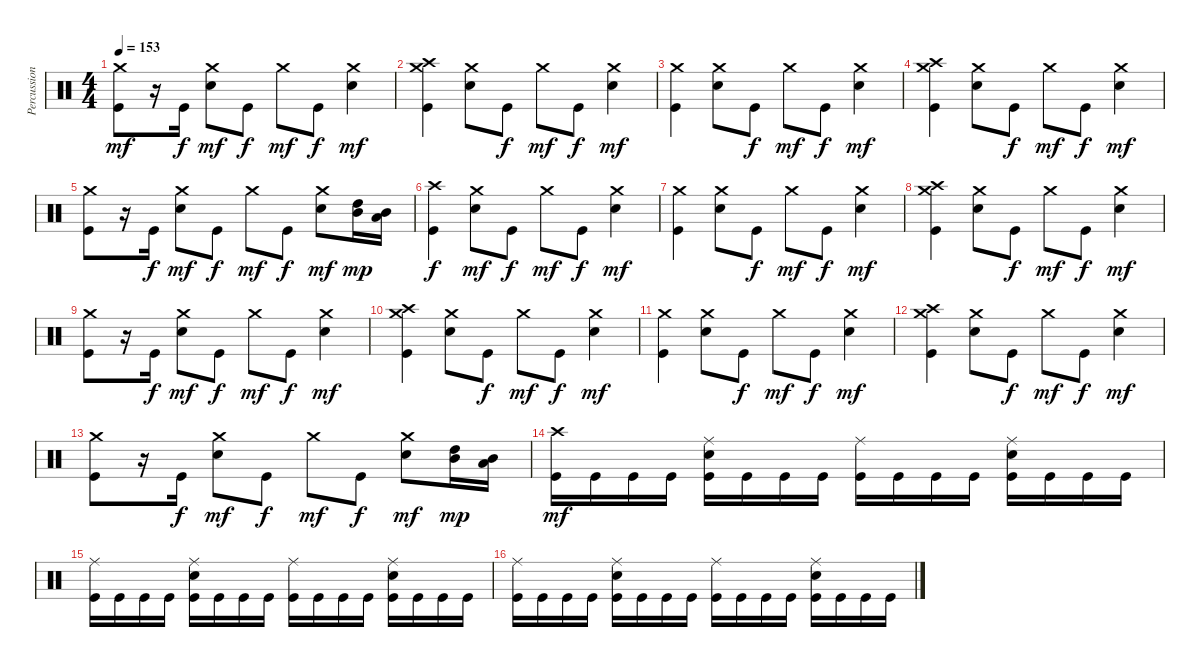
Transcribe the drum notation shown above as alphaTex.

\track ("Percussions" "Percussion") {instrument percussion}
\staff {score}
\articulation defaults
\ts (4 4)
\tempo 153
\clef neutral
\ks c
("Kick (hit)" "Crash medium (hit)").8{dy mf} r.16 "Kick (hit)".16{dy f} ("Electric Snare (hit)" "Crash medium (hit)").8{dy mf} "Kick (hit)".8{dy f} "Crash medium (hit)".8{dy mf} "Kick (hit)".8{dy f} ("Electric Snare (hit)" "Crash medium (hit)").4{dy mf} |
("Kick (hit)" "Crash medium (hit)" "Crash high (hit)").4 ("Electric Snare (hit)" "Crash medium (hit)").8 "Kick (hit)".8{dy f} "Crash medium (hit)".8{dy mf} "Kick (hit)".8{dy f} ("Electric Snare (hit)" "Crash medium (hit)").4{dy mf} |
("Kick (hit)" "Crash medium (hit)").4 ("Electric Snare (hit)" "Crash medium (hit)").8 "Kick (hit)".8{dy f} "Crash medium (hit)".8{dy mf} "Kick (hit)".8{dy f} ("Electric Snare (hit)" "Crash medium (hit)").4{dy mf} |
("Kick (hit)" "Crash medium (hit)" "Crash high (hit)").4 ("Electric Snare (hit)" "Crash medium (hit)").8 "Kick (hit)".8{dy f} "Crash medium (hit)".8{dy mf} "Kick (hit)".8{dy f} ("Electric Snare (hit)" "Crash medium (hit)").4{dy mf} |
("Kick (hit)" "Crash medium (hit)").8 r.16 "Kick (hit)".16{dy f} ("Electric Snare (hit)" "Crash medium (hit)").8{dy mf} "Kick (hit)".8{dy f} "Crash medium (hit)".8{dy mf} "Kick (hit)".8{dy f} ("Electric Snare (hit)" "Crash medium (hit)").8{dy mf} ("Mid Tom (hit)" "High Tom (hit)").16{dy mp} ("Low Tom (hit)" "Mid Tom (hit)").16 |
("Kick (hit)" "Crash high (hit)").4{dy f} ("Electric Snare (hit)" "Crash medium (hit)").8{dy mf} "Kick (hit)".8{dy f} "Crash medium (hit)".8{dy mf} "Kick (hit)".8{dy f} ("Electric Snare (hit)" "Crash medium (hit)").4{dy mf} |
("Kick (hit)" "Crash medium (hit)").4 ("Electric Snare (hit)" "Crash medium (hit)").8 "Kick (hit)".8{dy f} "Crash medium (hit)".8{dy mf} "Kick (hit)".8{dy f} ("Electric Snare (hit)" "Crash medium (hit)").4{dy mf} |
("Kick (hit)" "Crash medium (hit)" "Crash high (hit)").4 ("Electric Snare (hit)" "Crash medium (hit)").8 "Kick (hit)".8{dy f} "Crash medium (hit)".8{dy mf} "Kick (hit)".8{dy f} ("Electric Snare (hit)" "Crash medium (hit)").4{dy mf} |
("Kick (hit)" "Crash medium (hit)").8 r.16 "Kick (hit)".16{dy f} ("Electric Snare (hit)" "Crash medium (hit)").8{dy mf} "Kick (hit)".8{dy f} "Crash medium (hit)".8{dy mf} "Kick (hit)".8{dy f} ("Electric Snare (hit)" "Crash medium (hit)").4{dy mf} |
("Kick (hit)" "Crash medium (hit)" "Crash high (hit)").4 ("Electric Snare (hit)" "Crash medium (hit)").8 "Kick (hit)".8{dy f} "Crash medium (hit)".8{dy mf} "Kick (hit)".8{dy f} ("Electric Snare (hit)" "Crash medium (hit)").4{dy mf} |
("Kick (hit)" "Crash medium (hit)").4 ("Electric Snare (hit)" "Crash medium (hit)").8 "Kick (hit)".8{dy f} "Crash medium (hit)".8{dy mf} "Kick (hit)".8{dy f} ("Electric Snare (hit)" "Crash medium (hit)").4{dy mf} |
("Kick (hit)" "Crash medium (hit)" "Crash high (hit)").4 ("Electric Snare (hit)" "Crash medium (hit)").8 "Kick (hit)".8{dy f} "Crash medium (hit)".8{dy mf} "Kick (hit)".8{dy f} ("Electric Snare (hit)" "Crash medium (hit)").4{dy mf} |
("Kick (hit)" "Crash medium (hit)").8 r.16 "Kick (hit)".16{dy f} ("Electric Snare (hit)" "Crash medium (hit)").8{dy mf} "Kick (hit)".8{dy f} "Crash medium (hit)".8{dy mf} "Kick (hit)".8{dy f} ("Electric Snare (hit)" "Crash medium (hit)").8{dy mf} ("Mid Tom (hit)" "High Tom (hit)").16{dy mp} ("Low Tom (hit)" "Mid Tom (hit)").16 |
("Kick (hit)" "Crash high (hit)").16{dy mf} "Kick (hit)".16 "Kick (hit)".16 "Kick (hit)".16 ("Kick (hit)" "Electric Snare (hit)" "Ride (middle)").16 "Kick (hit)".16 "Kick (hit)".16 "Kick (hit)".16 ("Kick (hit)" "Ride (middle)").16 "Kick (hit)".16 "Kick (hit)".16 "Kick (hit)".16 ("Kick (hit)" "Electric Snare (hit)" "Ride (middle)").16 "Kick (hit)".16 "Kick (hit)".16 "Kick (hit)".16 |
("Kick (hit)" "Ride (middle)").16 "Kick (hit)".16 "Kick (hit)".16 "Kick (hit)".16 ("Kick (hit)" "Electric Snare (hit)" "Ride (middle)").16 "Kick (hit)".16 "Kick (hit)".16 "Kick (hit)".16 ("Kick (hit)" "Ride (middle)").16 "Kick (hit)".16 "Kick (hit)".16 "Kick (hit)".16 ("Kick (hit)" "Electric Snare (hit)" "Ride (middle)").16 "Kick (hit)".16 "Kick (hit)".16 "Kick (hit)".16 |
("Kick (hit)" "Ride (middle)").16 "Kick (hit)".16 "Kick (hit)".16 "Kick (hit)".16 ("Kick (hit)" "Electric Snare (hit)" "Ride (middle)").16 "Kick (hit)".16 "Kick (hit)".16 "Kick (hit)".16 ("Kick (hit)" "Ride (middle)").16 "Kick (hit)".16 "Kick (hit)".16 "Kick (hit)".16 ("Kick (hit)" "Electric Snare (hit)" "Ride (middle)").16 "Kick (hit)".16 "Kick (hit)".16 "Kick (hit)".16
